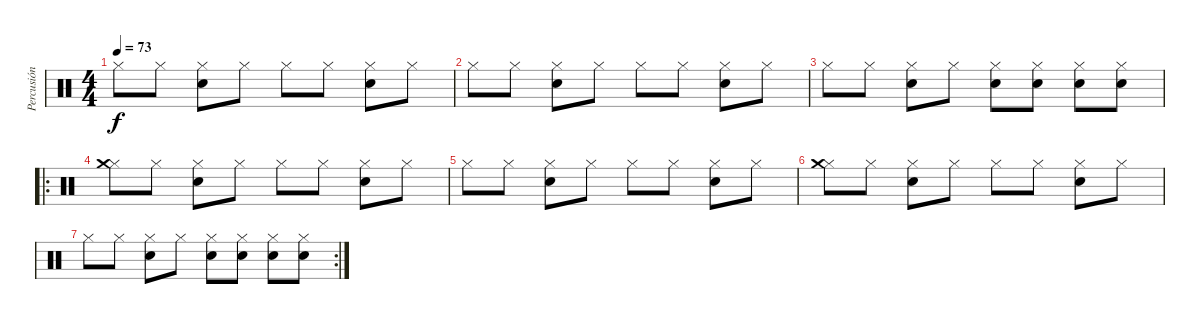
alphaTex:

\track ("Percusión" "Percusión") {instrument percussion}
\staff {score}
\articulation defaults
\ts (4 4)
\tempo 73
\clef neutral
\ks c "Hi-Hat (closed)".8{dy f} "Hi-Hat (closed)".8
("Hi-Hat (closed)" "Snare (hit) 2").8 "Hi-Hat (closed)".8 "Hi-Hat (closed)".8 "Hi-Hat (closed)".8 ("Hi-Hat (closed)" "Snare (hit) 2").8 "Hi-Hat (closed)".8 |
"Hi-Hat (closed)".8 "Hi-Hat (closed)".8 ("Hi-Hat (closed)" "Snare (hit) 2").8 "Hi-Hat (closed)".8 "Hi-Hat (closed)".8 "Hi-Hat (closed)".8 ("Hi-Hat (closed)" "Snare (hit) 2").8 "Hi-Hat (closed)".8 |
"Hi-Hat (closed)".8 "Hi-Hat (closed)".8 ("Hi-Hat (closed)" "Snare (hit) 2").8 "Hi-Hat (closed)".8 ("Hi-Hat (closed)" "Snare (hit) 2").8 ("Hi-Hat (closed)" "Snare (hit) 2").8 ("Hi-Hat (closed)" "Snare (hit) 2").8 ("Hi-Hat (closed)" "Snare (hit) 2").8 |
\ro
("Hi-Hat (closed)" "Crash medium (hit)").8 "Hi-Hat (closed)".8 ("Hi-Hat (closed)" "Snare (hit) 2").8 "Hi-Hat (closed)".8 "Hi-Hat (closed)".8 "Hi-Hat (closed)".8 ("Hi-Hat (closed)" "Snare (hit) 2").8 "Hi-Hat (closed)".8 |
"Hi-Hat (closed)".8 "Hi-Hat (closed)".8 ("Hi-Hat (closed)" "Snare (hit) 2").8 "Hi-Hat (closed)".8 "Hi-Hat (closed)".8 "Hi-Hat (closed)".8 ("Hi-Hat (closed)" "Snare (hit) 2").8 "Hi-Hat (closed)".8 |
("Hi-Hat (closed)" "Crash medium (hit)").8 "Hi-Hat (closed)".8 ("Hi-Hat (closed)" "Snare (hit) 2").8 "Hi-Hat (closed)".8 "Hi-Hat (closed)".8 "Hi-Hat (closed)".8 ("Hi-Hat (closed)" "Snare (hit) 2").8 "Hi-Hat (closed)".8 |
\rc 2 "Hi-Hat (closed)".8 "Hi-Hat (closed)".8
("Hi-Hat (closed)" "Snare (hit) 2").8 "Hi-Hat (closed)".8 ("Hi-Hat (closed)" "Snare (hit) 2").8 ("Hi-Hat (closed)" "Snare (hit) 2").8 ("Hi-Hat (closed)" "Snare (hit) 2").8 ("Hi-Hat (closed)" "Snare (hit) 2").8
